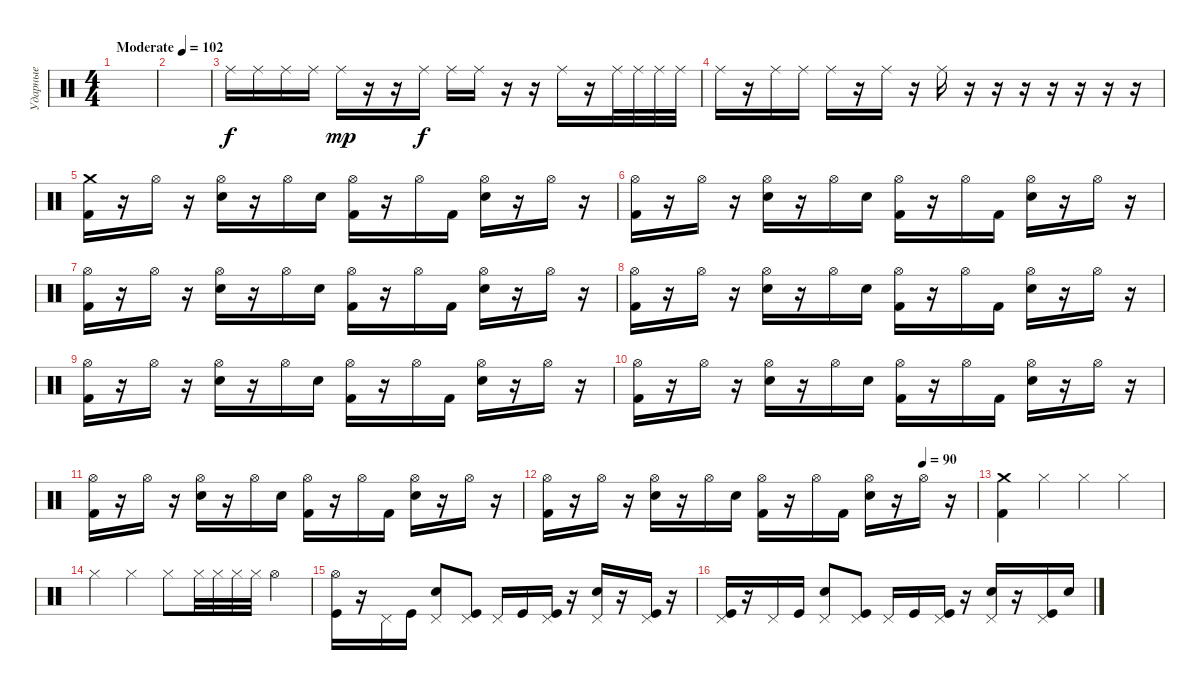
\track ("Ударные" "Ударные") {instrument percussion}
\staff {score}
\articulation defaults
\ts (4 4)
\tempo (102 "Moderate")
\clef neutral
\ks c
|
|
"Ride (middle)".16 "Ride (middle)".16 "Ride (middle)".16 "Ride (middle)".16 "Ride (middle)".16{dy mp} r.16 r.16 "Ride (middle)".16{dy f} "Ride (middle)".16 "Ride (middle)".16 r.16 r.16 "Ride (middle)".16 r.16 "Ride (middle)".32 "Ride (middle)".32 "Ride (middle)".32 "Ride (middle)".32 |
"Ride (middle)".16 r.16 "Ride (middle)".16 "Ride (middle)".16 "Ride (middle)".16 r.16 "Ride (middle)".16 r.16 "Ride (middle)".16 r.16 r.16 r.16 r.16 r.16 r.16 r.16 |
("Crash medium (hit)" "Kick (hit) 2").16 r.16 "Hi-Hat (open)".16 r.16 ("Hi-Hat (open)" "Electric Snare (hit)").16 r.16 "Hi-Hat (open)".16 "Electric Snare (hit)".16 ("Hi-Hat (open)" "Kick (hit) 2").16 r.16 "Hi-Hat (open)".16 "Kick (hit) 2".16 ("Hi-Hat (open)" "Electric Snare (hit)").16 r.16 "Hi-Hat (open)".16 r.16 |
("Hi-Hat (open)" "Kick (hit) 2").16 r.16 "Hi-Hat (open)".16 r.16 ("Hi-Hat (open)" "Electric Snare (hit)").16 r.16 "Hi-Hat (open)".16 "Electric Snare (hit)".16 ("Hi-Hat (open)" "Kick (hit) 2").16 r.16 "Hi-Hat (open)".16 "Kick (hit) 2".16 ("Hi-Hat (open)" "Electric Snare (hit)").16 r.16 "Hi-Hat (open)".16 r.16 |
("Hi-Hat (open)" "Kick (hit) 2").16 r.16 "Hi-Hat (open)".16 r.16 ("Hi-Hat (open)" "Electric Snare (hit)").16 r.16 "Hi-Hat (open)".16 "Electric Snare (hit)".16 ("Hi-Hat (open)" "Kick (hit) 2").16 r.16 "Hi-Hat (open)".16 "Kick (hit) 2".16 ("Hi-Hat (open)" "Electric Snare (hit)").16 r.16 "Hi-Hat (open)".16 r.16 |
("Hi-Hat (open)" "Kick (hit) 2").16 r.16 "Hi-Hat (open)".16 r.16 ("Hi-Hat (open)" "Electric Snare (hit)").16 r.16 "Hi-Hat (open)".16 "Electric Snare (hit)".16 ("Hi-Hat (open)" "Kick (hit) 2").16 r.16 "Hi-Hat (open)".16 "Kick (hit) 2".16 ("Hi-Hat (open)" "Electric Snare (hit)").16 r.16 "Hi-Hat (open)".16 r.16 |
("Hi-Hat (open)" "Kick (hit) 2").16 r.16 "Hi-Hat (open)".16 r.16 ("Hi-Hat (open)" "Electric Snare (hit)").16 r.16 "Hi-Hat (open)".16 "Electric Snare (hit)".16 ("Hi-Hat (open)" "Kick (hit) 2").16 r.16 "Hi-Hat (open)".16 "Kick (hit) 2".16 ("Hi-Hat (open)" "Electric Snare (hit)").16 r.16 "Hi-Hat (open)".16 r.16 |
("Hi-Hat (open)" "Kick (hit) 2").16 r.16 "Hi-Hat (open)".16 r.16 ("Hi-Hat (open)" "Electric Snare (hit)").16 r.16 "Hi-Hat (open)".16 "Electric Snare (hit)".16 ("Hi-Hat (open)" "Kick (hit) 2").16 r.16 "Hi-Hat (open)".16 "Kick (hit) 2".16 ("Hi-Hat (open)" "Electric Snare (hit)").16 r.16 "Hi-Hat (open)".16 r.16 |
("Hi-Hat (open)" "Kick (hit) 2").16 r.16 "Hi-Hat (open)".16 r.16 ("Hi-Hat (open)" "Electric Snare (hit)").16 r.16 "Hi-Hat (open)".16 "Electric Snare (hit)".16 ("Hi-Hat (open)" "Kick (hit) 2").16 r.16 "Hi-Hat (open)".16 "Kick (hit) 2".16 ("Hi-Hat (open)" "Electric Snare (hit)").16 r.16 "Hi-Hat (open)".16 r.16 |
\tempo (90 0.875)
("Hi-Hat (open)" "Kick (hit) 2").16 r.16 "Hi-Hat (open)".16 r.16 ("Hi-Hat (open)" "Electric Snare (hit)").16 r.16 "Hi-Hat (open)".16 "Electric Snare (hit)".16 ("Hi-Hat (open)" "Kick (hit) 2").16 r.16 "Hi-Hat (open)".16 "Kick (hit) 2".16 ("Hi-Hat (open)" "Electric Snare (hit)").16 r.16 "Hi-Hat (open)".16 r.16 |
("Crash medium (hit)" "Kick (hit) 2").4 "Hi-Hat (closed)".4 "Hi-Hat (closed)".4 "Hi-Hat (closed)".4 |
"Hi-Hat (closed)".4 "Hi-Hat (closed)".4 "Hi-Hat (closed)".8 "Hi-Hat (closed)".32 "Hi-Hat (closed)".32 "Hi-Hat (closed)".32 "Hi-Hat (closed)".32 "Hi-Hat (open)".4 |
("Hi-Hat (open)" "Kick (hit)").16 r.16 "Pedal Hi-Hat (hit)".16 "Kick (hit)".16 ("Pedal Hi-Hat (hit)" "Electric Snare (hit)").8 ("Pedal Hi-Hat (hit)" "Kick (hit)").8 "Pedal Hi-Hat (hit)".16 "Kick (hit)".16 ("Pedal Hi-Hat (hit)" "Kick (hit)").16 r.16 ("Pedal Hi-Hat (hit)" "Electric Snare (hit)").16 r.16 ("Pedal Hi-Hat (hit)" "Kick (hit)").16 r.16 |
("Pedal Hi-Hat (hit)" "Kick (hit)").16 r.16 "Pedal Hi-Hat (hit)".16 "Kick (hit)".16 ("Pedal Hi-Hat (hit)" "Electric Snare (hit)").8 ("Pedal Hi-Hat (hit)" "Kick (hit)").8 "Pedal Hi-Hat (hit)".16 "Kick (hit)".16 ("Pedal Hi-Hat (hit)" "Kick (hit)").16 r.16 ("Pedal Hi-Hat (hit)" "Electric Snare (hit)").16 r.16 ("Pedal Hi-Hat (hit)" "Kick (hit)").16 "Electric Snare (hit)".16
